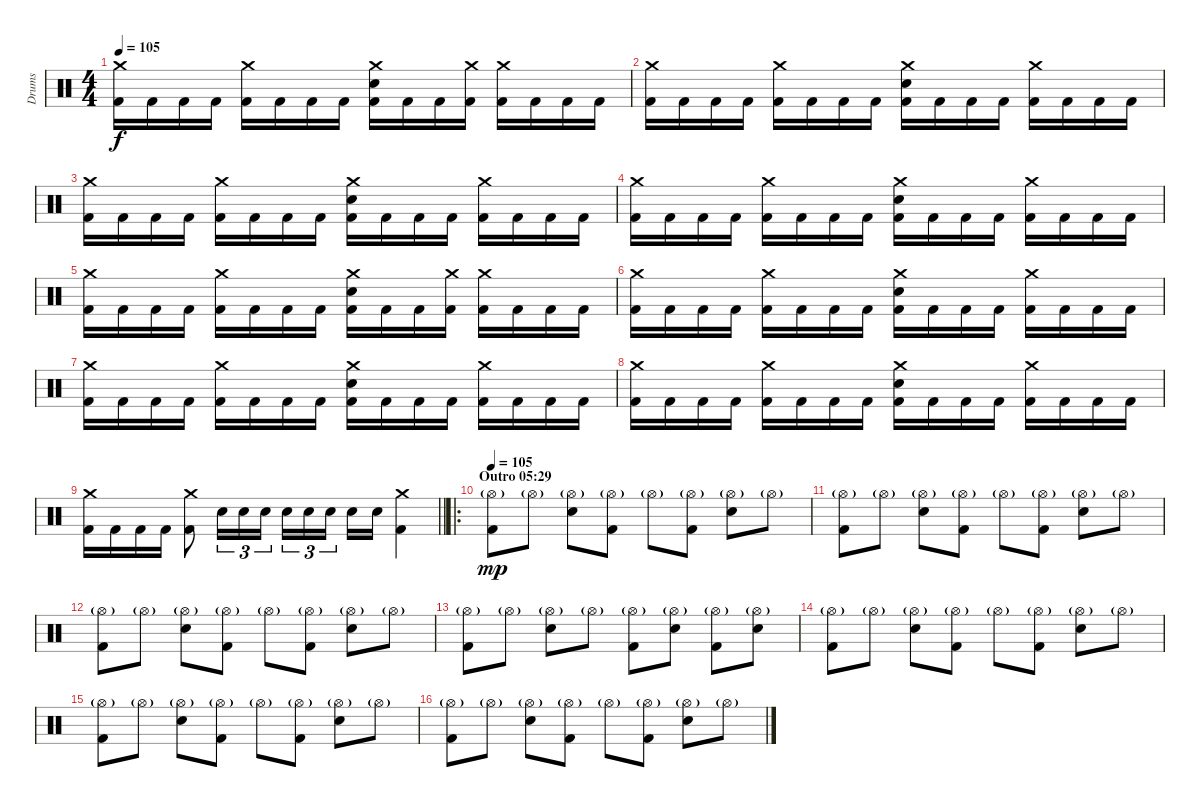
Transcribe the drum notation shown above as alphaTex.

\track ("Drums" "Drums") {instrument percussion}
\staff {score}
\articulation defaults
\ts (4 4)
\tempo 105
\clef neutral
\ks c
("Crash medium (hit)" "Kick (hit) 2").16{dy f volume 13} "Kick (hit) 2".16 "Kick (hit) 2".16 "Kick (hit) 2".16 ("Crash medium (hit)" "Kick (hit) 2").16 "Kick (hit) 2".16 "Kick (hit) 2".16 "Kick (hit) 2".16 ("Crash medium (hit)" "Electric Snare (hit)" "Kick (hit) 2").16 "Kick (hit) 2".16 "Kick (hit) 2".16 ("Crash medium (hit)" "Kick (hit) 2").16 ("Crash medium (hit)" "Kick (hit) 2").16 "Kick (hit) 2".16 "Kick (hit) 2".16 "Kick (hit) 2".16 |
("Crash medium (hit)" "Kick (hit) 2").16{volume 13} "Kick (hit) 2".16 "Kick (hit) 2".16 "Kick (hit) 2".16 ("Crash medium (hit)" "Kick (hit) 2").16 "Kick (hit) 2".16 "Kick (hit) 2".16 "Kick (hit) 2".16 ("Crash medium (hit)" "Electric Snare (hit)" "Kick (hit) 2").16 "Kick (hit) 2".16 "Kick (hit) 2".16 "Kick (hit) 2".16 ("Crash medium (hit)" "Kick (hit) 2").16 "Kick (hit) 2".16 "Kick (hit) 2".16 "Kick (hit) 2".16 |
("Crash medium (hit)" "Kick (hit) 2").16{volume 13} "Kick (hit) 2".16 "Kick (hit) 2".16 "Kick (hit) 2".16 ("Crash medium (hit)" "Kick (hit) 2").16 "Kick (hit) 2".16 "Kick (hit) 2".16 "Kick (hit) 2".16 ("Crash medium (hit)" "Electric Snare (hit)" "Kick (hit) 2").16 "Kick (hit) 2".16 "Kick (hit) 2".16 "Kick (hit) 2".16 ("Crash medium (hit)" "Kick (hit) 2").16 "Kick (hit) 2".16 "Kick (hit) 2".16 "Kick (hit) 2".16 |
("Crash medium (hit)" "Kick (hit) 2").16{volume 13} "Kick (hit) 2".16 "Kick (hit) 2".16 "Kick (hit) 2".16 ("Crash medium (hit)" "Kick (hit) 2").16 "Kick (hit) 2".16 "Kick (hit) 2".16 "Kick (hit) 2".16 ("Crash medium (hit)" "Electric Snare (hit)" "Kick (hit) 2").16 "Kick (hit) 2".16 "Kick (hit) 2".16 "Kick (hit) 2".16 ("Crash medium (hit)" "Kick (hit) 2").16 "Kick (hit) 2".16 "Kick (hit) 2".16 "Kick (hit) 2".16 |
("Crash medium (hit)" "Kick (hit) 2").16{volume 13} "Kick (hit) 2".16 "Kick (hit) 2".16 "Kick (hit) 2".16 ("Crash medium (hit)" "Kick (hit) 2").16 "Kick (hit) 2".16 "Kick (hit) 2".16 "Kick (hit) 2".16 ("Crash medium (hit)" "Electric Snare (hit)" "Kick (hit) 2").16 "Kick (hit) 2".16 "Kick (hit) 2".16 ("Crash medium (hit)" "Kick (hit) 2").16 ("Crash medium (hit)" "Kick (hit) 2").16 "Kick (hit) 2".16 "Kick (hit) 2".16 "Kick (hit) 2".16 |
("Crash medium (hit)" "Kick (hit) 2").16{volume 13} "Kick (hit) 2".16 "Kick (hit) 2".16 "Kick (hit) 2".16 ("Crash medium (hit)" "Kick (hit) 2").16 "Kick (hit) 2".16 "Kick (hit) 2".16 "Kick (hit) 2".16 ("Crash medium (hit)" "Electric Snare (hit)" "Kick (hit) 2").16 "Kick (hit) 2".16 "Kick (hit) 2".16 "Kick (hit) 2".16 ("Crash medium (hit)" "Kick (hit) 2").16 "Kick (hit) 2".16 "Kick (hit) 2".16 "Kick (hit) 2".16 |
("Crash medium (hit)" "Kick (hit) 2").16{volume 13} "Kick (hit) 2".16 "Kick (hit) 2".16 "Kick (hit) 2".16 ("Crash medium (hit)" "Kick (hit) 2").16 "Kick (hit) 2".16 "Kick (hit) 2".16 "Kick (hit) 2".16 ("Crash medium (hit)" "Electric Snare (hit)" "Kick (hit) 2").16 "Kick (hit) 2".16 "Kick (hit) 2".16 "Kick (hit) 2".16 ("Crash medium (hit)" "Kick (hit) 2").16 "Kick (hit) 2".16 "Kick (hit) 2".16 "Kick (hit) 2".16 |
("Crash medium (hit)" "Kick (hit) 2").16{volume 13} "Kick (hit) 2".16 "Kick (hit) 2".16 "Kick (hit) 2".16 ("Crash medium (hit)" "Kick (hit) 2").16 "Kick (hit) 2".16 "Kick (hit) 2".16 "Kick (hit) 2".16 ("Crash medium (hit)" "Electric Snare (hit)" "Kick (hit) 2").16 "Kick (hit) 2".16 "Kick (hit) 2".16 "Kick (hit) 2".16 ("Crash medium (hit)" "Kick (hit) 2").16 "Kick (hit) 2".16 "Kick (hit) 2".16 "Kick (hit) 2".16 |
\barLineRight lightlight
("Crash medium (hit)" "Kick (hit) 2").16{volume 13} "Kick (hit) 2".16 "Kick (hit) 2".16 "Kick (hit) 2".16 ("Crash medium (hit)" "Kick (hit) 2").8 "Electric Snare (hit)".16{tu (3 2)} "Electric Snare (hit)".16{tu (3 2)} "Electric Snare (hit)".16{tu (3 2)} "Electric Snare (hit)".16{tu (3 2)} "Electric Snare (hit)".16{tu (3 2)} "Electric Snare (hit)".16{tu (3 2) beam splitsecondary} "Electric Snare (hit)".16 "Electric Snare (hit)".16 ("Crash medium (hit)" "Kick (hit) 2").4 |
\ro
\section ("" "Outro 05:29")
\tempo 105
("Hi-Hat (open)"{g} "Kick (hit) 2").8{dy mp} "Hi-Hat (open)"{g}.8 ("Hi-Hat (open)"{g} "Electric Snare (hit)").8 ("Hi-Hat (open)"{g} "Kick (hit) 2").8 "Hi-Hat (open)"{g}.8 ("Hi-Hat (open)"{g} "Kick (hit) 2").8 ("Hi-Hat (open)"{g} "Electric Snare (hit)").8 "Hi-Hat (open)"{g}.8 |
("Hi-Hat (open)"{g} "Kick (hit) 2").8 "Hi-Hat (open)"{g}.8 ("Hi-Hat (open)"{g} "Electric Snare (hit)").8 ("Hi-Hat (open)"{g} "Kick (hit) 2").8 "Hi-Hat (open)"{g}.8 ("Hi-Hat (open)"{g} "Kick (hit) 2").8 ("Hi-Hat (open)"{g} "Electric Snare (hit)").8 "Hi-Hat (open)"{g}.8 |
("Hi-Hat (open)"{g} "Kick (hit) 2").8 "Hi-Hat (open)"{g}.8 ("Hi-Hat (open)"{g} "Electric Snare (hit)").8 ("Hi-Hat (open)"{g} "Kick (hit) 2").8 "Hi-Hat (open)"{g}.8 ("Hi-Hat (open)"{g} "Kick (hit) 2").8 ("Hi-Hat (open)"{g} "Electric Snare (hit)").8 "Hi-Hat (open)"{g}.8 |
("Hi-Hat (open)"{g} "Kick (hit) 2").8 "Hi-Hat (open)"{g}.8 ("Hi-Hat (open)"{g} "Electric Snare (hit)").8 "Hi-Hat (open)"{g}.8 ("Hi-Hat (open)"{g} "Kick (hit) 2").8 ("Hi-Hat (open)"{g} "Electric Snare (hit)").8 ("Hi-Hat (open)"{g} "Kick (hit) 2").8 ("Hi-Hat (open)"{g} "Electric Snare (hit)").8 |
("Hi-Hat (open)"{g} "Kick (hit) 2").8 "Hi-Hat (open)"{g}.8 ("Hi-Hat (open)"{g} "Electric Snare (hit)").8 ("Hi-Hat (open)"{g} "Kick (hit) 2").8 "Hi-Hat (open)"{g}.8 ("Hi-Hat (open)"{g} "Kick (hit) 2").8 ("Hi-Hat (open)"{g} "Electric Snare (hit)").8 "Hi-Hat (open)"{g}.8 |
("Hi-Hat (open)"{g} "Kick (hit) 2").8 "Hi-Hat (open)"{g}.8 ("Hi-Hat (open)"{g} "Electric Snare (hit)").8 ("Hi-Hat (open)"{g} "Kick (hit) 2").8 "Hi-Hat (open)"{g}.8 ("Hi-Hat (open)"{g} "Kick (hit) 2").8 ("Hi-Hat (open)"{g} "Electric Snare (hit)").8 "Hi-Hat (open)"{g}.8 |
("Hi-Hat (open)"{g} "Kick (hit) 2").8 "Hi-Hat (open)"{g}.8 ("Hi-Hat (open)"{g} "Electric Snare (hit)").8 ("Hi-Hat (open)"{g} "Kick (hit) 2").8 "Hi-Hat (open)"{g}.8 ("Hi-Hat (open)"{g} "Kick (hit) 2").8 ("Hi-Hat (open)"{g} "Electric Snare (hit)").8 "Hi-Hat (open)"{g}.8
